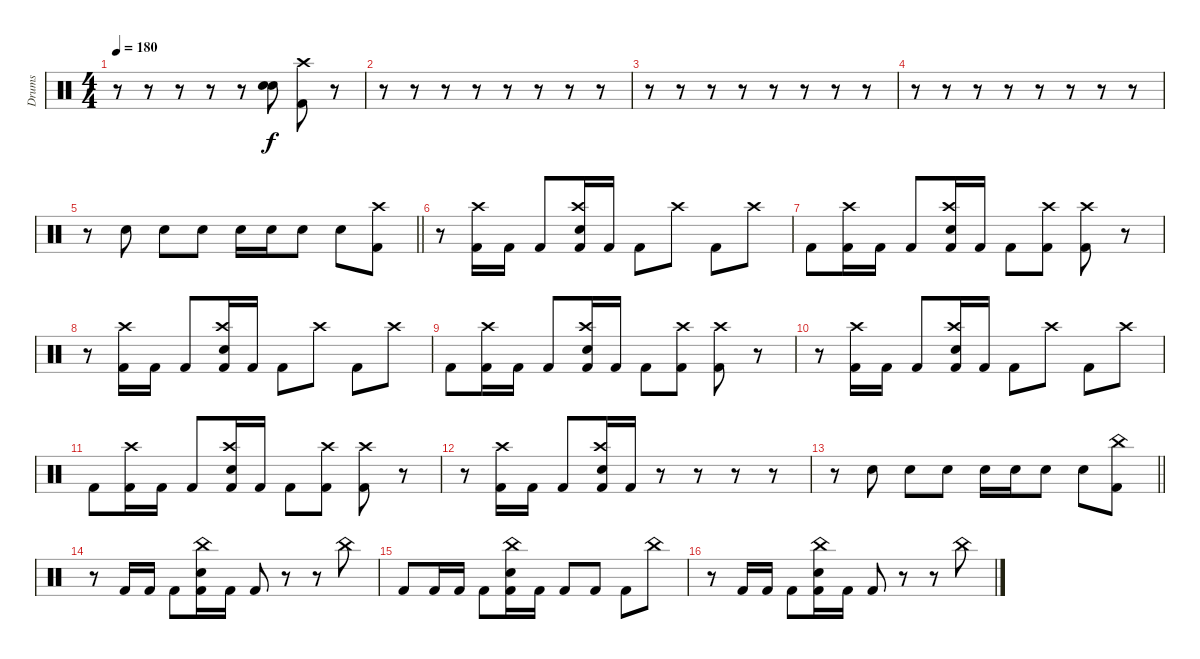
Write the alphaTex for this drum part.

\track ("Drums" "Drums") {instrument percussion}
\staff {score}
\articulation defaults
\ts (4 4)
\tempo 180
\clef neutral
\ks c
r.8{dy f} r.8 r.8 r.8 r.8 ("Snare (hit) 2" "Snare (hit) 2").8 ("Crash high (hit)" "Kick (hit) 2").8 r.8 |
r.8 r.8 r.8 r.8 r.8 r.8 r.8 r.8 |
r.8 r.8 r.8 r.8 r.8 r.8 r.8 r.8 |
r.8 r.8 r.8 r.8 r.8 r.8 r.8 r.8 |
\barLineRight lightlight
r.8 "Snare (hit) 2".8 "Snare (hit) 2".8 "Snare (hit) 2".8 "Snare (hit) 2".16 "Snare (hit) 2".16 "Snare (hit) 2".8 "Snare (hit) 2".8 ("Crash high (hit)" "Kick (hit) 2").8 |
r.8 ("Crash high (hit)" "Kick (hit) 2").16 "Kick (hit) 2".16 "Kick (hit) 2".8 ("Crash high (hit)" "Snare (hit) 2" "Kick (hit) 2").16 "Kick (hit) 2".16 "Kick (hit) 2".8 "Crash high (hit)".8 "Kick (hit) 2".8 "Crash high (hit)".8 |
"Kick (hit) 2".8 ("Crash high (hit)" "Kick (hit) 2").16 "Kick (hit) 2".16 "Kick (hit) 2".8 ("Crash high (hit)" "Snare (hit) 2" "Kick (hit) 2").16 "Kick (hit) 2".16 "Kick (hit) 2".8 ("Crash high (hit)" "Kick (hit) 2").8 ("Crash high (hit)" "Kick (hit) 2").8 r.8 |
r.8 ("Crash high (hit)" "Kick (hit) 2").16 "Kick (hit) 2".16 "Kick (hit) 2".8 ("Crash high (hit)" "Snare (hit) 2" "Kick (hit) 2").16 "Kick (hit) 2".16 "Kick (hit) 2".8 "Crash high (hit)".8 "Kick (hit) 2".8 "Crash high (hit)".8 |
"Kick (hit) 2".8 ("Crash high (hit)" "Kick (hit) 2").16 "Kick (hit) 2".16 "Kick (hit) 2".8 ("Crash high (hit)" "Snare (hit) 2" "Kick (hit) 2").16 "Kick (hit) 2".16 "Kick (hit) 2".8 ("Crash high (hit)" "Kick (hit) 2").8 ("Crash high (hit)" "Kick (hit) 2").8 r.8 |
r.8 ("Crash high (hit)" "Kick (hit) 2").16 "Kick (hit) 2".16 "Kick (hit) 2".8 ("Crash high (hit)" "Snare (hit) 2" "Kick (hit) 2").16 "Kick (hit) 2".16 "Kick (hit) 2".8 "Crash high (hit)".8 "Kick (hit) 2".8 "Crash high (hit)".8 |
"Kick (hit) 2".8 ("Crash high (hit)" "Kick (hit) 2").16 "Kick (hit) 2".16 "Kick (hit) 2".8 ("Crash high (hit)" "Snare (hit) 2" "Kick (hit) 2").16 "Kick (hit) 2".16 "Kick (hit) 2".8 ("Crash high (hit)" "Kick (hit) 2").8 ("Crash high (hit)" "Kick (hit) 2").8 r.8 |
r.8 ("Crash high (hit)" "Kick (hit) 2").16 "Kick (hit) 2".16 "Kick (hit) 2".8 ("Crash high (hit)" "Snare (hit) 2" "Kick (hit) 2").16 "Kick (hit) 2".16 r.8 r.8 r.8 r.8 |
\barLineRight lightlight
r.8 "Snare (hit) 2".8 "Snare (hit) 2".8 "Snare (hit) 2".8 "Snare (hit) 2".16 "Snare (hit) 2".16 "Snare (hit) 2".8 "Snare (hit) 2".8 ("China (hit)" "Kick (hit) 2").8 |
r.8 "Kick (hit) 2".16 "Kick (hit) 2".16 "Kick (hit) 2".8 ("China (hit)" "Snare (hit) 2" "Kick (hit) 2").16 "Kick (hit) 2".16 "Kick (hit) 2".8 r.8 r.8 "China (hit)".8 |
"Kick (hit) 2".8 "Kick (hit) 2".16 "Kick (hit) 2".16 "Kick (hit) 2".8 ("China (hit)" "Snare (hit) 2" "Kick (hit) 2").16 "Kick (hit) 2".16 "Kick (hit) 2".8 "Kick (hit) 2".8 "Kick (hit) 2".8 "China (hit)".8 |
r.8 "Kick (hit) 2".16 "Kick (hit) 2".16 "Kick (hit) 2".8 ("China (hit)" "Snare (hit) 2" "Kick (hit) 2").16 "Kick (hit) 2".16 "Kick (hit) 2".8 r.8 r.8 "China (hit)".8
